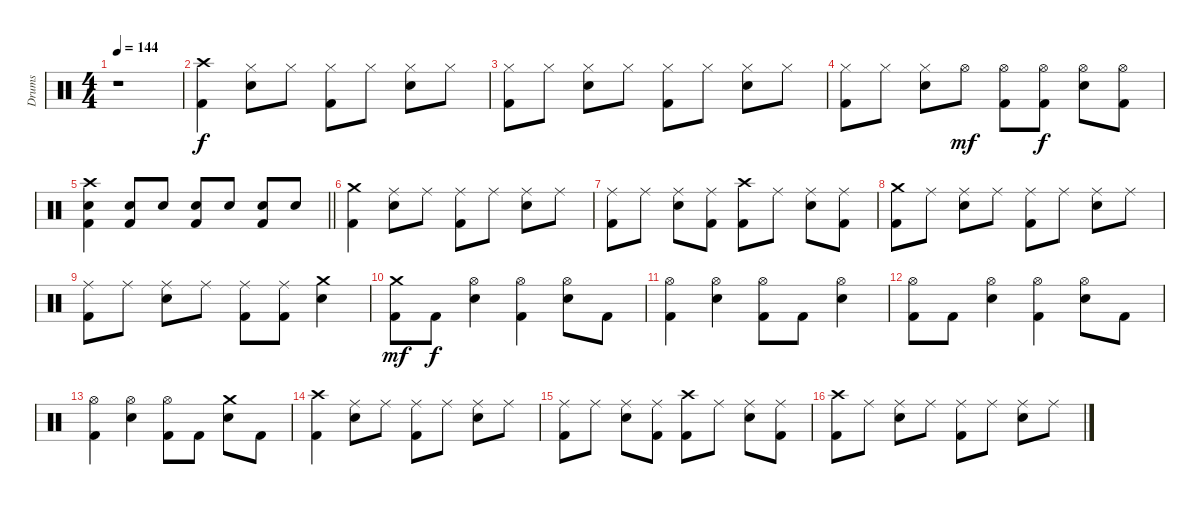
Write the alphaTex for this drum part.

\track ("Drums" "Drums") {instrument percussion}
\staff {score}
\articulation defaults
\ts (4 4)
\tempo 144
\clef neutral
\ks c
r.1{dy f} |
("Crash high (hit)" "Kick (hit) 2").4 ("Hi-Hat (closed)" "Snare (hit) 2").8 "Hi-Hat (closed)".8 ("Hi-Hat (closed)" "Kick (hit) 2").8 "Hi-Hat (closed)".8 ("Hi-Hat (closed)" "Snare (hit) 2").8 "Hi-Hat (closed)".8 |
("Hi-Hat (closed)" "Kick (hit) 2").8 "Hi-Hat (closed)".8 ("Hi-Hat (closed)" "Snare (hit) 2").8 "Hi-Hat (closed)".8 ("Hi-Hat (closed)" "Kick (hit) 2").8 "Hi-Hat (closed)".8 ("Hi-Hat (closed)" "Snare (hit) 2").8 "Hi-Hat (closed)".8 |
("Hi-Hat (closed)" "Kick (hit) 2").8 "Hi-Hat (closed)".8 ("Hi-Hat (closed)" "Snare (hit) 2").8 "Hi-Hat (open)".8{dy mf} ("Hi-Hat (open)" "Kick (hit) 2").8 ("Hi-Hat (open)" "Kick (hit) 2").8{dy f} ("Hi-Hat (open)" "Snare (hit) 2").8 ("Hi-Hat (open)" "Kick (hit) 2").8 |
\barLineRight lightlight
("Crash high (hit)" "Snare (hit) 2" "Kick (hit) 2").4 ("Snare (hit) 2" "Kick (hit) 2").8 "Snare (hit) 2".8 ("Snare (hit) 2" "Kick (hit) 2").8 "Snare (hit) 2".8 ("Snare (hit) 2" "Kick (hit) 2").8 "Snare (hit) 2".8 |
("Crash medium (hit)" "Kick (hit) 2").4 ("Ride (middle)" "Snare (hit) 2").8 "Ride (middle)".8 ("Ride (middle)" "Kick (hit) 2").8 "Ride (middle)".8 ("Ride (middle)" "Snare (hit) 2").8 "Ride (middle)".8 |
("Ride (middle)" "Kick (hit) 2").8 "Ride (middle)".8 ("Ride (middle)" "Snare (hit) 2").8 ("Ride (middle)" "Kick (hit) 2").8 ("Crash high (hit)" "Kick (hit) 2").8 "Ride (middle)".8 ("Ride (middle)" "Snare (hit) 2").8 ("Ride (middle)" "Kick (hit) 2").8 |
("Crash medium (hit)" "Kick (hit) 2").8 "Ride (middle)".8 ("Ride (middle)" "Snare (hit) 2").8 "Ride (middle)".8 ("Ride (middle)" "Kick (hit) 2").8 "Ride (middle)".8 ("Ride (middle)" "Snare (hit) 2").8 "Ride (middle)".8 |
("Ride (middle)" "Kick (hit) 2").8 "Ride (middle)".8 ("Ride (middle)" "Snare (hit) 2").8 "Ride (middle)".8 ("Ride (middle)" "Kick (hit) 2").8 ("Ride (middle)" "Kick (hit) 2").8 ("Crash medium (hit)" "Snare (hit) 2").4 |
("Crash medium (hit)" "Kick (hit) 2").8{dy mf} "Kick (hit) 2".8{dy f} ("Hi-Hat (open)" "Snare (hit) 2").4 ("Hi-Hat (open)" "Kick (hit) 2").4 ("Hi-Hat (open)" "Snare (hit) 2").8 "Kick (hit) 2".8 |
("Hi-Hat (open)" "Kick (hit) 2").4 ("Hi-Hat (open)" "Snare (hit) 2").4 ("Hi-Hat (open)" "Kick (hit) 2").8 "Kick (hit) 2".8 ("Hi-Hat (open)" "Snare (hit) 2").4 |
("Hi-Hat (open)" "Kick (hit) 2").8 "Kick (hit) 2".8 ("Hi-Hat (open)" "Snare (hit) 2").4 ("Hi-Hat (open)" "Kick (hit) 2").4 ("Hi-Hat (open)" "Snare (hit) 2").8 "Kick (hit) 2".8 |
("Hi-Hat (open)" "Kick (hit) 2").4 ("Hi-Hat (open)" "Snare (hit) 2").4 ("Hi-Hat (open)" "Kick (hit) 2").8 "Kick (hit) 2".8 ("Crash medium (hit)" "Snare (hit) 2").8 "Kick (hit) 2".8 |
("Crash high (hit)" "Kick (hit) 2").4 ("Ride (middle)" "Snare (hit) 2").8 "Ride (middle)".8 ("Ride (middle)" "Kick (hit) 2").8 "Ride (middle)".8 ("Ride (middle)" "Snare (hit) 2").8 "Ride (middle)".8 |
("Ride (middle)" "Kick (hit) 2").8 "Ride (middle)".8 ("Ride (middle)" "Snare (hit) 2").8 ("Ride (middle)" "Kick (hit) 2").8 ("Crash high (hit)" "Kick (hit) 2").8 "Ride (middle)".8 ("Ride (middle)" "Snare (hit) 2").8 ("Ride (middle)" "Kick (hit) 2").8 |
("Crash high (hit)" "Kick (hit) 2").8 "Ride (middle)".8 ("Ride (middle)" "Snare (hit) 2").8 "Ride (middle)".8 ("Ride (middle)" "Kick (hit) 2").8 "Ride (middle)".8 ("Ride (middle)" "Snare (hit) 2").8 "Ride (middle)".8
